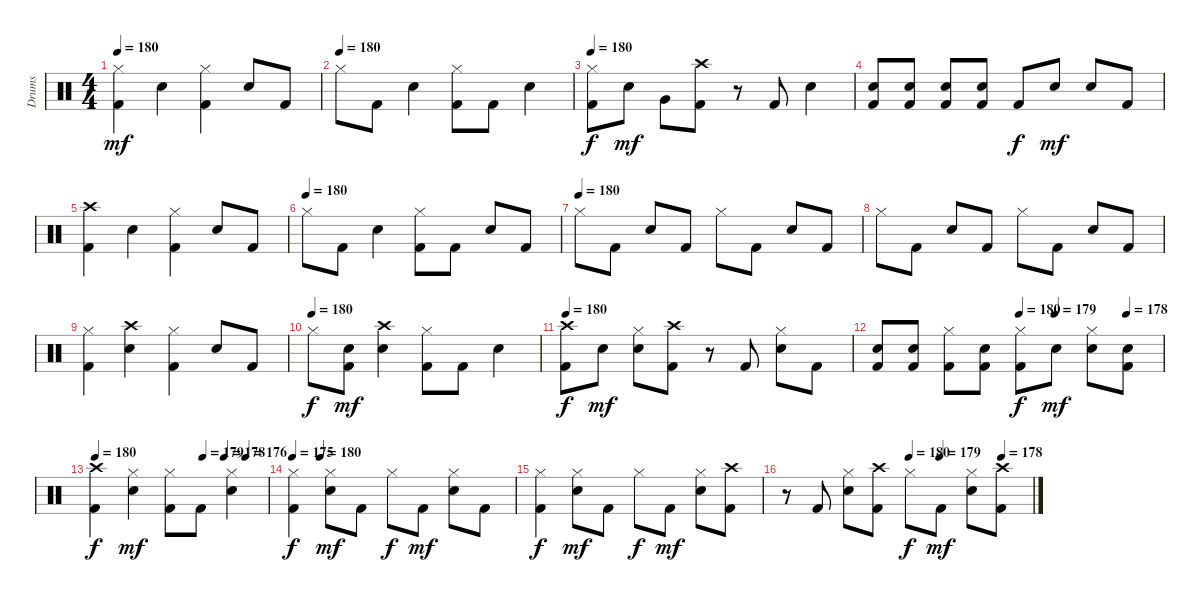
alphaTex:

\track ("Drums" "Drums") {instrument percussion}
\staff {score}
\articulation defaults
\ts (4 4)
\tempo 180
\clef neutral
\ks c
("Hi-Hat (closed)" "Kick (hit) 2").4{dy mf} "Snare (hit) 2".4 ("Hi-Hat (closed)" "Kick (hit) 2").4 "Snare (hit) 2".8 "Kick (hit) 2".8 |
\tempo (180)
"Hi-Hat (closed)".8 "Kick (hit) 2".8 "Snare (hit) 2".4 ("Hi-Hat (closed)" "Kick (hit) 2").8 "Kick (hit) 2".8 "Snare (hit) 2".4 |
\tempo 180
("Hi-Hat (closed)" "Kick (hit) 2").8{dy f} "Snare (hit) 2".8{dy mf} "Very Low Tom (hit)".8 ("Crash high (hit)" "Kick (hit) 2").8 r.8 "Kick (hit) 2".8 "Snare (hit) 2".4 |
("Snare (hit) 2" "Kick (hit) 2").8 ("Snare (hit) 2" "Kick (hit) 2").8 ("Snare (hit) 2" "Kick (hit) 2").8 ("Snare (hit) 2" "Kick (hit) 2").8 "Kick (hit) 2".8{dy f} "Snare (hit) 2".8{dy mf} "Snare (hit) 2".8 "Kick (hit) 2".8 |
("Crash high (hit)" "Kick (hit) 2").4 "Snare (hit) 2".4 ("Hi-Hat (closed)" "Kick (hit) 2").4 "Snare (hit) 2".8 "Kick (hit) 2".8 |
\tempo (180)
"Hi-Hat (closed)".8 "Kick (hit) 2".8 "Snare (hit) 2".4 ("Hi-Hat (closed)" "Kick (hit) 2").8 "Kick (hit) 2".8 "Snare (hit) 2".8 "Kick (hit) 2".8 |
\tempo (180)
"Hi-Hat (closed)".8 "Kick (hit) 2".8 "Snare (hit) 2".8 "Kick (hit) 2".8 "Hi-Hat (closed)".8 "Kick (hit) 2".8 "Snare (hit) 2".8 "Kick (hit) 2".8 |
"Hi-Hat (closed)".8 "Kick (hit) 2".8 "Snare (hit) 2".8 "Kick (hit) 2".8 "Hi-Hat (closed)".8 "Kick (hit) 2".8 "Snare (hit) 2".8 "Kick (hit) 2".8 |
("Hi-Hat (closed)" "Kick (hit) 2").4 ("Snare (hit) 2" "Crash high (hit)").4 ("Hi-Hat (closed)" "Kick (hit) 2").4 "Snare (hit) 2".8 "Kick (hit) 2".8 |
\tempo (180)
"Hi-Hat (closed)".8{dy f} ("Snare (hit) 2" "Kick (hit) 2").8{dy mf} ("Snare (hit) 2" "Crash high (hit)").4 ("Hi-Hat (closed)" "Kick (hit) 2").8 "Kick (hit) 2".8 "Snare (hit) 2".4 |
\tempo 180
("Crash high (hit)" "Kick (hit) 2").8{dy f} "Snare (hit) 2".8{dy mf} ("Snare (hit) 2" "Hi-Hat (closed)").8 ("Crash high (hit)" "Kick (hit) 2").8 r.8 "Kick (hit) 2".8 ("Snare (hit) 2" "Hi-Hat (closed)").8 "Kick (hit) 2".8 |
\tempo (180 0.5)
\tempo (179 0.625)
\tempo (178 0.875)
("Snare (hit) 2" "Kick (hit) 2").8 ("Snare (hit) 2" "Kick (hit) 2").8 ("Hi-Hat (closed)" "Kick (hit) 2").8 ("Snare (hit) 2" "Kick (hit) 2").8 ("Hi-Hat (closed)" "Kick (hit) 2").8{dy f} "Snare (hit) 2".8{dy mf} ("Snare (hit) 2" "Hi-Hat (closed)").8 ("Snare (hit) 2" "Kick (hit) 2").8 |
\tempo 180
\tempo (179 0.625)
\tempo (178 0.75)
\tempo (176 0.875)
("Crash high (hit)" "Kick (hit) 2").4{dy f} ("Snare (hit) 2" "Hi-Hat (closed)").4{dy mf} ("Hi-Hat (closed)" "Kick (hit) 2").8 "Kick (hit) 2".8 ("Snare (hit) 2" "Hi-Hat (closed)").4 |
\tempo 175
\tempo (180 0.125)
("Hi-Hat (closed)" "Kick (hit) 2").4{dy f} ("Snare (hit) 2" "Hi-Hat (closed)").8{dy mf} "Kick (hit) 2".8 "Hi-Hat (closed)".8{dy f} "Kick (hit) 2".8{dy mf} ("Snare (hit) 2" "Hi-Hat (closed)").8 "Kick (hit) 2".8 |
("Hi-Hat (closed)" "Kick (hit) 2").4{dy f} ("Snare (hit) 2" "Hi-Hat (closed)").8{dy mf} "Kick (hit) 2".8 "Hi-Hat (closed)".8{dy f} "Kick (hit) 2".8{dy mf} ("Snare (hit) 2" "Hi-Hat (closed)").8 ("Crash high (hit)" "Kick (hit) 2").8 |
\tempo (180 0.5)
\tempo (179 0.625)
\tempo (178 0.875)
r.8 "Kick (hit) 2".8 ("Snare (hit) 2" "Hi-Hat (closed)").8 ("Crash high (hit)" "Kick (hit) 2").8 "Hi-Hat (closed)".8{dy f} "Kick (hit) 2".8{dy mf} ("Snare (hit) 2" "Hi-Hat (closed)").8 ("Crash high (hit)" "Kick (hit) 2").8
